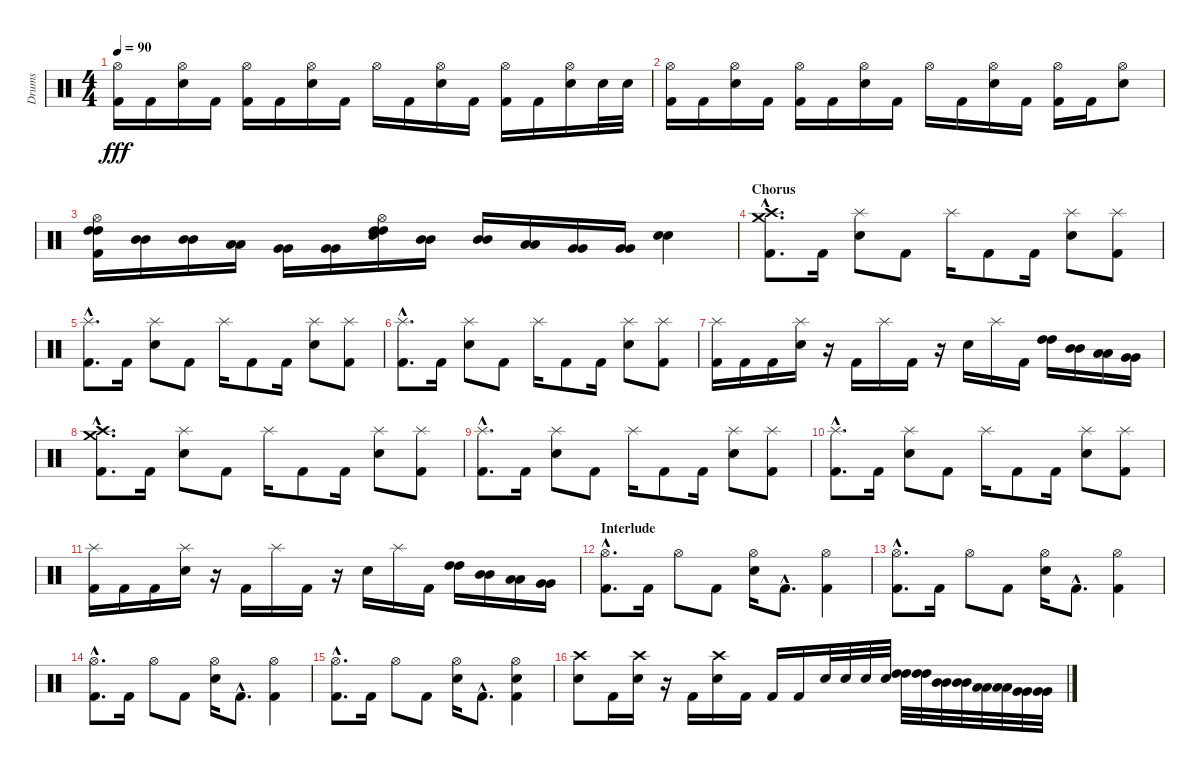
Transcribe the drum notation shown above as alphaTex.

\track ("Drums" "Drums") {instrument percussion}
\staff {score}
\articulation defaults
\ts (4 4)
\tempo 90
\clef neutral
\ks c
("Hi-Hat (open)" "Kick (hit) 2").16{dy fff} "Kick (hit) 2".16 ("Hi-Hat (open)" "Electric Snare (hit)").16 "Kick (hit) 2".16 ("Hi-Hat (open)" "Kick (hit) 2").16 "Kick (hit) 2".16 ("Hi-Hat (open)" "Electric Snare (hit)").16 "Kick (hit) 2".16 "Hi-Hat (open)".16 "Kick (hit) 2".16 ("Hi-Hat (open)" "Electric Snare (hit)").16 "Kick (hit) 2".16 ("Hi-Hat (open)" "Kick (hit) 2").16 "Kick (hit) 2".16 ("Hi-Hat (open)" "Electric Snare (hit)").16 "Electric Snare (hit)".32 "Electric Snare (hit)".32 |
("Hi-Hat (open)" "Kick (hit) 2").16 "Kick (hit) 2".16 ("Hi-Hat (open)" "Electric Snare (hit)").16 "Kick (hit) 2".16 ("Hi-Hat (open)" "Kick (hit) 2").16 "Kick (hit) 2".16 ("Hi-Hat (open)" "Electric Snare (hit)").16 "Kick (hit) 2".16 "Hi-Hat (open)".16 "Kick (hit) 2".16 ("Hi-Hat (open)" "Electric Snare (hit)").16 "Kick (hit) 2".16 ("Hi-Hat (open)" "Kick (hit) 2").16 "Kick (hit) 2".16 ("Hi-Hat (open)" "Electric Snare (hit)").8 |
("High Tom (hit)" "High Tom (hit)" "Hi-Hat (open)" "Kick (hit) 2").16 ("Mid Tom (hit)" "Mid Tom (hit)").16 ("Mid Tom (hit)" "Mid Tom (hit)").16 ("Low Tom (hit)" "Low Tom (hit)").16 ("Very Low Tom (hit)" "Very Low Tom (hit)").16 ("Very Low Tom (hit)" "Very Low Tom (hit)").16 ("High Tom (hit)" "High Tom (hit)" "Hi-Hat (open)" "Electric Snare (hit)").16 ("Mid Tom (hit)" "Mid Tom (hit)").16 ("Mid Tom (hit)" "Mid Tom (hit)").16 ("Low Tom (hit)" "Low Tom (hit)").16 ("Very Low Tom (hit)" "Very Low Tom (hit)").16 ("Very Low Tom (hit)" "Very Low Tom (hit)").16 ("Electric Snare (hit)" "Electric Snare (hit)").4 |
\section ("" "Chorus")
("Crash high (hit)"{hac} "Crash medium (hit)"{hac} "Kick (hit) 2"{hac}).8{d} "Kick (hit) 2".16 ("Splash (hit)" "Electric Snare (hit)").8 "Kick (hit) 2".8 "Splash (hit)".16 "Kick (hit) 2".8 "Kick (hit) 2".16 ("Splash (hit)" "Electric Snare (hit)").8 ("Splash (hit)" "Kick (hit) 2").8 |
("Splash (hit)"{hac} "Kick (hit) 2"{hac}).8{d} "Kick (hit) 2".16 ("Splash (hit)" "Electric Snare (hit)").8 "Kick (hit) 2".8 "Splash (hit)".16 "Kick (hit) 2".8 "Kick (hit) 2".16 ("Splash (hit)" "Electric Snare (hit)").8 ("Splash (hit)" "Kick (hit) 2").8 |
("Splash (hit)"{hac} "Kick (hit) 2"{hac}).8{d} "Kick (hit) 2".16 ("Splash (hit)" "Electric Snare (hit)").8 "Kick (hit) 2".8 "Splash (hit)".16 "Kick (hit) 2".8 "Kick (hit) 2".16 ("Splash (hit)" "Electric Snare (hit)").8 ("Splash (hit)" "Kick (hit) 2").8 |
("Splash (hit)" "Kick (hit) 2").16 "Kick (hit) 2".16 "Kick (hit) 2".16 ("Splash (hit)" "Electric Snare (hit)").16 r.16 "Kick (hit) 2".16 "Splash (hit)".16 "Kick (hit) 2".16 r.16 "Electric Snare (hit)".16 "Splash (hit)".16 "Kick (hit) 2".16 ("High Tom (hit)" "High Tom (hit)").16 ("Mid Tom (hit)" "Mid Tom (hit)").16 ("Low Tom (hit)" "Low Tom (hit)").16 ("Very Low Tom (hit)" "Very Low Tom (hit)").16 |
("Crash high (hit)"{hac} "Crash medium (hit)"{hac} "Kick (hit) 2"{hac}).8{d} "Kick (hit) 2".16 ("Splash (hit)" "Electric Snare (hit)").8 "Kick (hit) 2".8 "Splash (hit)".16 "Kick (hit) 2".8 "Kick (hit) 2".16 ("Splash (hit)" "Electric Snare (hit)").8 ("Splash (hit)" "Kick (hit) 2").8 |
("Splash (hit)"{hac} "Kick (hit) 2"{hac}).8{d} "Kick (hit) 2".16 ("Splash (hit)" "Electric Snare (hit)").8 "Kick (hit) 2".8 "Splash (hit)".16 "Kick (hit) 2".8 "Kick (hit) 2".16 ("Splash (hit)" "Electric Snare (hit)").8 ("Splash (hit)" "Kick (hit) 2").8 |
("Splash (hit)"{hac} "Kick (hit) 2"{hac}).8{d} "Kick (hit) 2".16 ("Splash (hit)" "Electric Snare (hit)").8 "Kick (hit) 2".8 "Splash (hit)".16 "Kick (hit) 2".8 "Kick (hit) 2".16 ("Splash (hit)" "Electric Snare (hit)").8 ("Splash (hit)" "Kick (hit) 2").8 |
("Splash (hit)" "Kick (hit) 2").16 "Kick (hit) 2".16 "Kick (hit) 2".16 ("Splash (hit)" "Electric Snare (hit)").16 r.16 "Kick (hit) 2".16 "Splash (hit)".16 "Kick (hit) 2".16 r.16 "Electric Snare (hit)".16 "Splash (hit)".16 "Kick (hit) 2".16 ("High Tom (hit)" "High Tom (hit)").16 ("Mid Tom (hit)" "Mid Tom (hit)").16 ("Low Tom (hit)" "Low Tom (hit)").16 ("Very Low Tom (hit)" "Very Low Tom (hit)").16 |
\section ("" "Interlude")
("Hi-Hat (open)"{hac} "Kick (hit) 2"{hac}).8{d} "Kick (hit) 2".16 "Hi-Hat (open)".8 "Kick (hit) 2".8 ("Hi-Hat (open)" "Electric Snare (hit)").16 "Kick (hit) 2"{hac}.8{d} ("Hi-Hat (open)" "Kick (hit) 2").4 |
("Hi-Hat (open)"{hac} "Kick (hit) 2"{hac}).8{d} "Kick (hit) 2".16 "Hi-Hat (open)".8 "Kick (hit) 2".8 ("Hi-Hat (open)" "Electric Snare (hit)").16 "Kick (hit) 2"{hac}.8{d} ("Hi-Hat (open)" "Kick (hit) 2").4 |
("Hi-Hat (open)"{hac} "Kick (hit) 2"{hac}).8{d} "Kick (hit) 2".16 "Hi-Hat (open)".8 "Kick (hit) 2".8 ("Hi-Hat (open)" "Electric Snare (hit)").16 "Kick (hit) 2"{hac}.8{d} ("Hi-Hat (open)" "Kick (hit) 2").4 |
("Hi-Hat (open)"{hac} "Kick (hit) 2"{hac}).8{d} "Kick (hit) 2".16 "Hi-Hat (open)".8 "Kick (hit) 2".8 ("Hi-Hat (open)" "Electric Snare (hit)").16 "Kick (hit) 2"{hac}.8{d} ("Hi-Hat (open)" "Electric Snare (hit)" "Kick (hit) 2").4 |
("Crash high (hit)" "Electric Snare (hit)").8 "Kick (hit) 2".16 ("Crash high (hit)" "Electric Snare (hit)").16 r.16 "Kick (hit) 2".16 ("Crash high (hit)" "Electric Snare (hit)").16 "Kick (hit) 2".16 "Kick (hit) 2".16 "Kick (hit) 2".16 "Electric Snare (hit)".32 "Electric Snare (hit)".32 "Electric Snare (hit)".32 "Electric Snare (hit)".32 ("High Tom (hit)" "High Tom (hit)").32 ("High Tom (hit)" "High Tom (hit)").32 ("Mid Tom (hit)" "Mid Tom (hit)").32 ("Mid Tom (hit)" "Mid Tom (hit)").32 ("Low Tom (hit)" "Low Tom (hit)").32 ("Low Tom (hit)" "Low Tom (hit)").32 ("Very Low Tom (hit)" "Very Low Tom (hit)").32 ("Very Low Tom (hit)" "Very Low Tom (hit)").32
